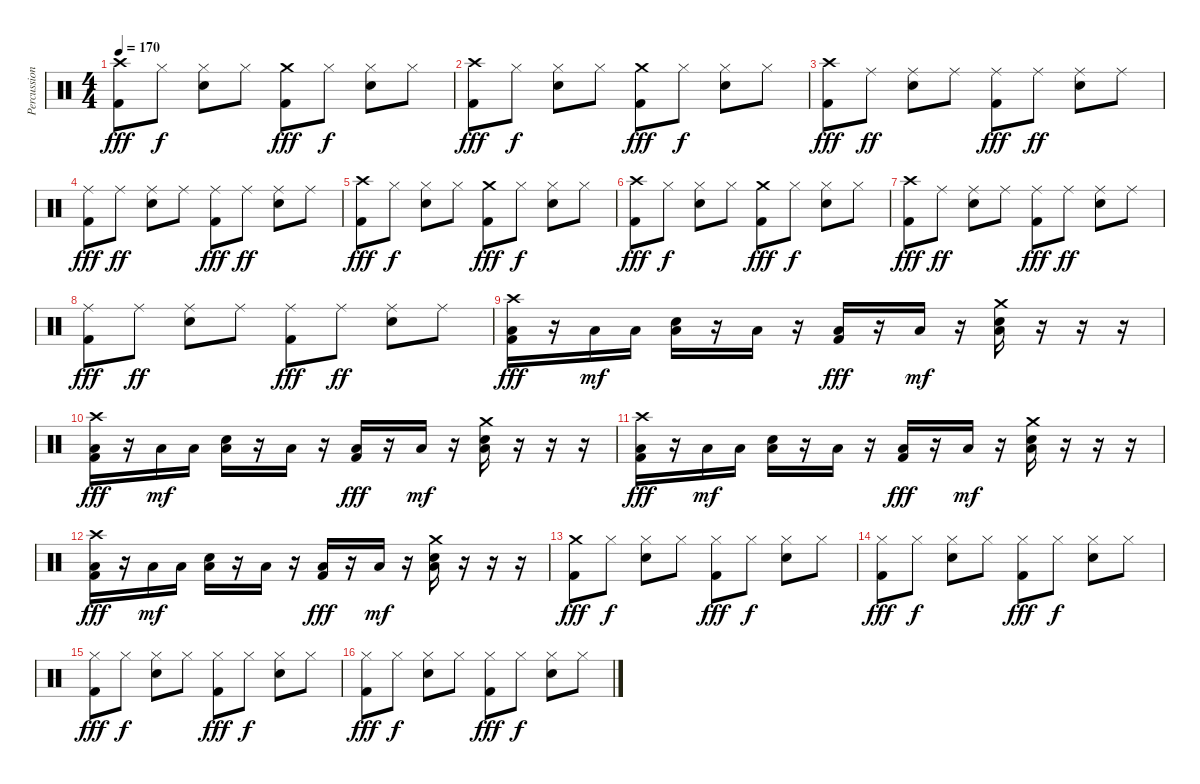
\track ("Percussion" "Percussion") {instrument percussion}
\staff {score}
\articulation defaults
\ts (4 4)
\tempo 170
\clef neutral
\ks c
("Crash high (hit)" "Kick (hit) 2").8{dy fff} "Hi-Hat (closed)".8{dy f} ("Hi-Hat (closed)" "Electric Snare (hit)").8 "Hi-Hat (closed)".8 ("Crash medium (hit)" "Kick (hit) 2").8{dy fff} "Hi-Hat (closed)".8{dy f} ("Hi-Hat (closed)" "Electric Snare (hit)").8 "Hi-Hat (closed)".8 |
("Crash high (hit)" "Kick (hit) 2").8{dy fff} "Hi-Hat (closed)".8{dy f} ("Hi-Hat (closed)" "Electric Snare (hit)").8 "Hi-Hat (closed)".8 ("Crash medium (hit)" "Kick (hit) 2").8{dy fff} "Hi-Hat (closed)".8{dy f} ("Hi-Hat (closed)" "Electric Snare (hit)").8 "Hi-Hat (closed)".8 |
("Crash high (hit)" "Kick (hit) 2").8{dy fff} "Ride (middle)".8{dy ff} ("Ride (middle)" "Electric Snare (hit)").8 "Ride (middle)".8 ("Ride (middle)" "Kick (hit) 2").8{dy fff} "Ride (middle)".8{dy ff} ("Ride (middle)" "Electric Snare (hit)").8 "Ride (middle)".8 |
("Ride (middle)" "Kick (hit) 2").8{dy fff} "Ride (middle)".8{dy ff} ("Ride (middle)" "Electric Snare (hit)").8 "Ride (middle)".8 ("Ride (middle)" "Kick (hit) 2").8{dy fff} "Ride (middle)".8{dy ff} ("Ride (middle)" "Electric Snare (hit)").8 "Ride (middle)".8 |
("Crash high (hit)" "Kick (hit) 2").8{dy fff} "Hi-Hat (closed)".8{dy f} ("Hi-Hat (closed)" "Electric Snare (hit)").8 "Hi-Hat (closed)".8 ("Crash medium (hit)" "Kick (hit) 2").8{dy fff} "Hi-Hat (closed)".8{dy f} ("Hi-Hat (closed)" "Electric Snare (hit)").8 "Hi-Hat (closed)".8 |
("Crash high (hit)" "Kick (hit) 2").8{dy fff} "Hi-Hat (closed)".8{dy f} ("Hi-Hat (closed)" "Electric Snare (hit)").8 "Hi-Hat (closed)".8 ("Crash medium (hit)" "Kick (hit) 2").8{dy fff} "Hi-Hat (closed)".8{dy f} ("Hi-Hat (closed)" "Electric Snare (hit)").8 "Hi-Hat (closed)".8 |
("Crash high (hit)" "Kick (hit) 2").8{dy fff} "Ride (middle)".8{dy ff} ("Ride (middle)" "Electric Snare (hit)").8 "Ride (middle)".8 ("Ride (middle)" "Kick (hit) 2").8{dy fff} "Ride (middle)".8{dy ff} ("Ride (middle)" "Electric Snare (hit)").8 "Ride (middle)".8 |
("Ride (middle)" "Kick (hit) 2").8{dy fff} "Ride (middle)".8{dy ff} ("Ride (middle)" "Electric Snare (hit)").8 "Ride (middle)".8 ("Ride (middle)" "Kick (hit) 2").8{dy fff} "Ride (middle)".8{dy ff} ("Ride (middle)" "Electric Snare (hit)").8 "Ride (middle)".8 |
("Crash high (hit)" "Low Floor Tom (hit)" "Kick (hit) 2").16{dy fff} r.16 "Low Floor Tom (hit)".16{dy mf} "Low Floor Tom (hit)".16 ("Low Floor Tom (hit)" "Electric Snare (hit)").16 r.16 "Low Floor Tom (hit)".16 r.16 ("Low Floor Tom (hit)" "Kick (hit) 2").16{dy fff} r.16 "Low Floor Tom (hit)".16{dy mf} r.16 ("Crash medium (hit)" "Low Floor Tom (hit)" "Electric Snare (hit)").16 r.16 r.16 r.16 |
("Crash high (hit)" "Low Floor Tom (hit)" "Kick (hit) 2").16{dy fff} r.16 "Low Floor Tom (hit)".16{dy mf} "Low Floor Tom (hit)".16 ("Low Floor Tom (hit)" "Electric Snare (hit)").16 r.16 "Low Floor Tom (hit)".16 r.16 ("Low Floor Tom (hit)" "Kick (hit) 2").16{dy fff} r.16 "Low Floor Tom (hit)".16{dy mf} r.16 ("Crash medium (hit)" "Low Floor Tom (hit)" "Electric Snare (hit)").16 r.16 r.16 r.16 |
("Crash high (hit)" "Low Floor Tom (hit)" "Kick (hit) 2").16{dy fff} r.16 "Low Floor Tom (hit)".16{dy mf} "Low Floor Tom (hit)".16 ("Low Floor Tom (hit)" "Electric Snare (hit)").16 r.16 "Low Floor Tom (hit)".16 r.16 ("Low Floor Tom (hit)" "Kick (hit) 2").16{dy fff} r.16 "Low Floor Tom (hit)".16{dy mf} r.16 ("Crash medium (hit)" "Low Floor Tom (hit)" "Electric Snare (hit)").16 r.16 r.16 r.16 |
("Crash high (hit)" "Low Floor Tom (hit)" "Kick (hit) 2").16{dy fff} r.16 "Low Floor Tom (hit)".16{dy mf} "Low Floor Tom (hit)".16 ("Low Floor Tom (hit)" "Electric Snare (hit)").16 r.16 "Low Floor Tom (hit)".16 r.16 ("Low Floor Tom (hit)" "Kick (hit) 2").16{dy fff} r.16 "Low Floor Tom (hit)".16{dy mf} r.16 ("Crash medium (hit)" "Low Floor Tom (hit)" "Electric Snare (hit)").16 r.16 r.16 r.16 |
("Crash medium (hit)" "Kick (hit) 2").8{dy fff} "Hi-Hat (closed)".8{dy f} ("Hi-Hat (closed)" "Electric Snare (hit)").8 "Hi-Hat (closed)".8 ("Hi-Hat (closed)" "Kick (hit) 2").8{dy fff} "Hi-Hat (closed)".8{dy f} ("Hi-Hat (closed)" "Electric Snare (hit)").8 "Hi-Hat (closed)".8 |
("Hi-Hat (closed)" "Kick (hit) 2").8{dy fff} "Hi-Hat (closed)".8{dy f} ("Hi-Hat (closed)" "Electric Snare (hit)").8 "Hi-Hat (closed)".8 ("Hi-Hat (closed)" "Kick (hit) 2").8{dy fff} "Hi-Hat (closed)".8{dy f} ("Hi-Hat (closed)" "Electric Snare (hit)").8 "Hi-Hat (closed)".8 |
("Hi-Hat (closed)" "Kick (hit) 2").8{dy fff} "Hi-Hat (closed)".8{dy f} ("Hi-Hat (closed)" "Electric Snare (hit)").8 "Hi-Hat (closed)".8 ("Hi-Hat (closed)" "Kick (hit) 2").8{dy fff} "Hi-Hat (closed)".8{dy f} ("Hi-Hat (closed)" "Electric Snare (hit)").8 "Hi-Hat (closed)".8 |
("Hi-Hat (closed)" "Kick (hit) 2").8{dy fff} "Hi-Hat (closed)".8{dy f} ("Hi-Hat (closed)" "Electric Snare (hit)").8 "Hi-Hat (closed)".8 ("Hi-Hat (closed)" "Kick (hit) 2").8{dy fff} "Hi-Hat (closed)".8{dy f} ("Hi-Hat (closed)" "Electric Snare (hit)").8 "Hi-Hat (closed)".8
